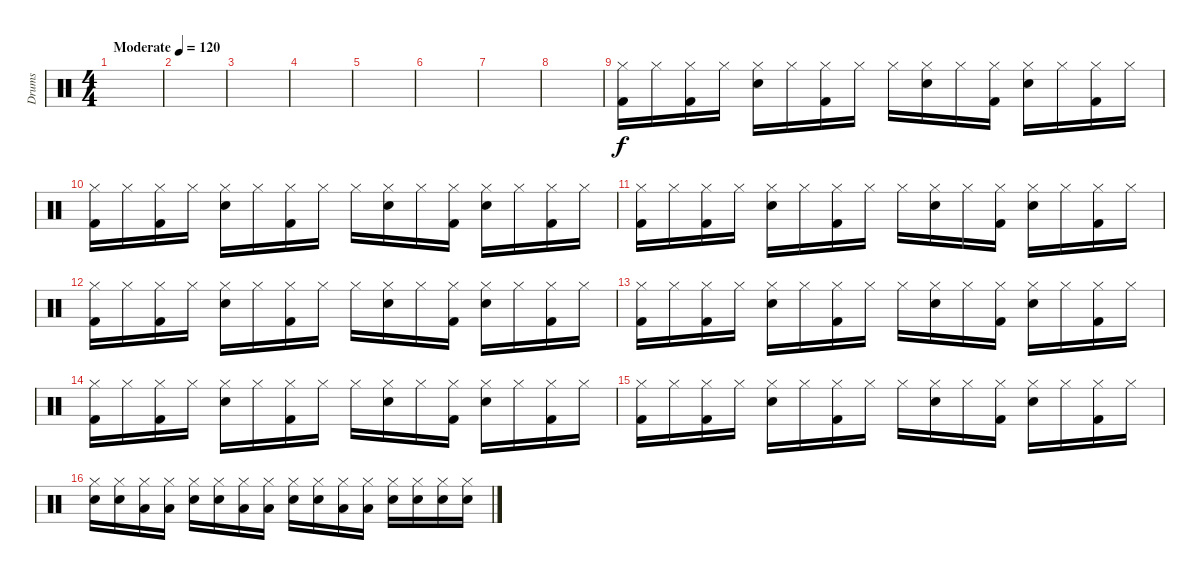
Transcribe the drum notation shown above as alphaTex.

\track ("Drums" "Drums") {instrument percussion}
\staff {score}
\articulation defaults
\ts (4 4)
\tempo (120 "Moderate")
\clef neutral
\ks c
|
|
|
|
|
|
|
|
("Hi-Hat (closed)" "Kick (hit) 2").16 "Hi-Hat (closed)".16 ("Hi-Hat (closed)" "Kick (hit) 2").16 "Hi-Hat (closed)".16 ("Hi-Hat (closed)" "Electric Snare (hit)").16 "Hi-Hat (closed)".16 ("Hi-Hat (closed)" "Kick (hit) 2").16 "Hi-Hat (closed)".16 "Hi-Hat (closed)".16 ("Hi-Hat (closed)" "Electric Snare (hit)").16 "Hi-Hat (closed)".16 ("Hi-Hat (closed)" "Kick (hit) 2").16 ("Hi-Hat (closed)" "Electric Snare (hit)").16 "Hi-Hat (closed)".16 ("Hi-Hat (closed)" "Kick (hit) 2").16 "Hi-Hat (closed)".16 |
("Hi-Hat (closed)" "Kick (hit) 2").16 "Hi-Hat (closed)".16 ("Hi-Hat (closed)" "Kick (hit) 2").16 "Hi-Hat (closed)".16 ("Hi-Hat (closed)" "Electric Snare (hit)").16 "Hi-Hat (closed)".16 ("Hi-Hat (closed)" "Kick (hit) 2").16 "Hi-Hat (closed)".16 "Hi-Hat (closed)".16 ("Hi-Hat (closed)" "Electric Snare (hit)").16 "Hi-Hat (closed)".16 ("Hi-Hat (closed)" "Kick (hit) 2").16 ("Hi-Hat (closed)" "Electric Snare (hit)").16 "Hi-Hat (closed)".16 ("Hi-Hat (closed)" "Kick (hit) 2").16 "Hi-Hat (closed)".16 |
("Hi-Hat (closed)" "Kick (hit) 2").16 "Hi-Hat (closed)".16 ("Hi-Hat (closed)" "Kick (hit) 2").16 "Hi-Hat (closed)".16 ("Hi-Hat (closed)" "Electric Snare (hit)").16 "Hi-Hat (closed)".16 ("Hi-Hat (closed)" "Kick (hit) 2").16 "Hi-Hat (closed)".16 "Hi-Hat (closed)".16 ("Hi-Hat (closed)" "Electric Snare (hit)").16 "Hi-Hat (closed)".16 ("Hi-Hat (closed)" "Kick (hit) 2").16 ("Hi-Hat (closed)" "Electric Snare (hit)").16 "Hi-Hat (closed)".16 ("Hi-Hat (closed)" "Kick (hit) 2").16 "Hi-Hat (closed)".16 |
("Hi-Hat (closed)" "Kick (hit) 2").16 "Hi-Hat (closed)".16 ("Hi-Hat (closed)" "Kick (hit) 2").16 "Hi-Hat (closed)".16 ("Hi-Hat (closed)" "Electric Snare (hit)").16 "Hi-Hat (closed)".16 ("Hi-Hat (closed)" "Kick (hit) 2").16 "Hi-Hat (closed)".16 "Hi-Hat (closed)".16 ("Hi-Hat (closed)" "Electric Snare (hit)").16 "Hi-Hat (closed)".16 ("Hi-Hat (closed)" "Kick (hit) 2").16 ("Hi-Hat (closed)" "Electric Snare (hit)").16 "Hi-Hat (closed)".16 ("Hi-Hat (closed)" "Kick (hit) 2").16 "Hi-Hat (closed)".16 |
("Hi-Hat (closed)" "Kick (hit) 2").16 "Hi-Hat (closed)".16 ("Hi-Hat (closed)" "Kick (hit) 2").16 "Hi-Hat (closed)".16 ("Hi-Hat (closed)" "Electric Snare (hit)").16 "Hi-Hat (closed)".16 ("Hi-Hat (closed)" "Kick (hit) 2").16 "Hi-Hat (closed)".16 "Hi-Hat (closed)".16 ("Hi-Hat (closed)" "Electric Snare (hit)").16 "Hi-Hat (closed)".16 ("Hi-Hat (closed)" "Kick (hit) 2").16 ("Hi-Hat (closed)" "Electric Snare (hit)").16 "Hi-Hat (closed)".16 ("Hi-Hat (closed)" "Kick (hit) 2").16 "Hi-Hat (closed)".16 |
("Hi-Hat (closed)" "Kick (hit) 2").16 "Hi-Hat (closed)".16 ("Hi-Hat (closed)" "Kick (hit) 2").16 "Hi-Hat (closed)".16 ("Hi-Hat (closed)" "Electric Snare (hit)").16 "Hi-Hat (closed)".16 ("Hi-Hat (closed)" "Kick (hit) 2").16 "Hi-Hat (closed)".16 "Hi-Hat (closed)".16 ("Hi-Hat (closed)" "Electric Snare (hit)").16 "Hi-Hat (closed)".16 ("Hi-Hat (closed)" "Kick (hit) 2").16 ("Hi-Hat (closed)" "Electric Snare (hit)").16 "Hi-Hat (closed)".16 ("Hi-Hat (closed)" "Kick (hit) 2").16 "Hi-Hat (closed)".16 |
("Hi-Hat (closed)" "Kick (hit) 2").16 "Hi-Hat (closed)".16 ("Hi-Hat (closed)" "Kick (hit) 2").16 "Hi-Hat (closed)".16 ("Hi-Hat (closed)" "Electric Snare (hit)").16 "Hi-Hat (closed)".16 ("Hi-Hat (closed)" "Kick (hit) 2").16 "Hi-Hat (closed)".16 "Hi-Hat (closed)".16 ("Hi-Hat (closed)" "Electric Snare (hit)").16 "Hi-Hat (closed)".16 ("Hi-Hat (closed)" "Kick (hit) 2").16 ("Hi-Hat (closed)" "Electric Snare (hit)").16 "Hi-Hat (closed)".16 ("Hi-Hat (closed)" "Kick (hit) 2").16 "Hi-Hat (closed)".16 |
("Hi-Hat (closed)" "Electric Snare (hit)").16 ("Hi-Hat (closed)" "Electric Snare (hit)").16 ("Hi-Hat (closed)" "Low Tom (hit)").16 ("Hi-Hat (closed)" "Low Tom (hit)").16 ("Hi-Hat (closed)" "Electric Snare (hit)").16 ("Hi-Hat (closed)" "Electric Snare (hit)").16 ("Hi-Hat (closed)" "Low Tom (hit)").16 ("Hi-Hat (closed)" "Low Tom (hit)").16 ("Hi-Hat (closed)" "Electric Snare (hit)").16 ("Hi-Hat (closed)" "Electric Snare (hit)").16 ("Hi-Hat (closed)" "Low Tom (hit)").16 ("Hi-Hat (closed)" "Low Tom (hit)").16 ("Hi-Hat (closed)" "Electric Snare (hit)").16 ("Hi-Hat (closed)" "Electric Snare (hit)").16 ("Hi-Hat (closed)" "Electric Snare (hit)").16 ("Hi-Hat (closed)" "Electric Snare (hit)").16
